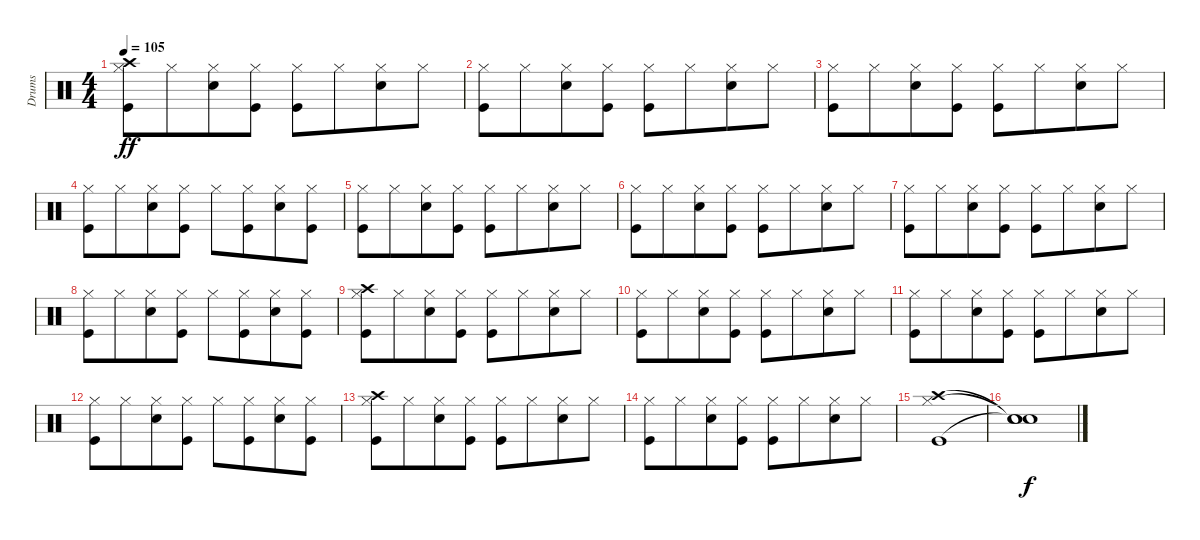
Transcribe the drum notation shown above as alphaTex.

\track ("Drums" "Drums") {instrument percussion}
\staff {score}
\articulation defaults
\ts (4 4)
\tempo 105
\clef neutral
\ks c
("Hi-Hat (closed)" "Crash high (hit)" "Kick (hit)").8{dy ff} "Hi-Hat (closed)".8{beam merge} ("Hi-Hat (closed)" "Snare (hit) 2").8 ("Hi-Hat (closed)" "Kick (hit)").8 ("Hi-Hat (closed)" "Kick (hit)").8 "Hi-Hat (closed)".8{beam merge} ("Hi-Hat (closed)" "Snare (hit) 2").8 "Hi-Hat (closed)".8 |
("Hi-Hat (closed)" "Kick (hit)").8 "Hi-Hat (closed)".8{beam merge} ("Hi-Hat (closed)" "Snare (hit) 2").8 ("Hi-Hat (closed)" "Kick (hit)").8 ("Hi-Hat (closed)" "Kick (hit)").8 "Hi-Hat (closed)".8{beam merge} ("Hi-Hat (closed)" "Snare (hit) 2").8 "Hi-Hat (closed)".8 |
("Hi-Hat (closed)" "Kick (hit)").8 "Hi-Hat (closed)".8{beam merge} ("Hi-Hat (closed)" "Snare (hit) 2").8 ("Hi-Hat (closed)" "Kick (hit)").8 ("Hi-Hat (closed)" "Kick (hit)").8 "Hi-Hat (closed)".8{beam merge} ("Hi-Hat (closed)" "Snare (hit) 2").8 "Hi-Hat (closed)".8 |
("Hi-Hat (closed)" "Kick (hit)").8 "Hi-Hat (closed)".8{beam merge} ("Hi-Hat (closed)" "Snare (hit) 2").8 ("Hi-Hat (closed)" "Kick (hit)").8 "Hi-Hat (closed)".8 ("Hi-Hat (closed)" "Kick (hit)").8{beam merge} ("Hi-Hat (closed)" "Snare (hit) 2").8 ("Hi-Hat (closed)" "Kick (hit)").8 |
("Hi-Hat (closed)" "Kick (hit)").8 "Hi-Hat (closed)".8{beam merge} ("Hi-Hat (closed)" "Snare (hit) 2").8 ("Hi-Hat (closed)" "Kick (hit)").8 ("Hi-Hat (closed)" "Kick (hit)").8 "Hi-Hat (closed)".8{beam merge} ("Hi-Hat (closed)" "Snare (hit) 2").8 "Hi-Hat (closed)".8 |
("Hi-Hat (closed)" "Kick (hit)").8 "Hi-Hat (closed)".8{beam merge} ("Hi-Hat (closed)" "Snare (hit) 2").8 ("Hi-Hat (closed)" "Kick (hit)").8 ("Hi-Hat (closed)" "Kick (hit)").8 "Hi-Hat (closed)".8{beam merge} ("Hi-Hat (closed)" "Snare (hit) 2").8 "Hi-Hat (closed)".8 |
("Hi-Hat (closed)" "Kick (hit)").8 "Hi-Hat (closed)".8{beam merge} ("Hi-Hat (closed)" "Snare (hit) 2").8 ("Hi-Hat (closed)" "Kick (hit)").8 ("Hi-Hat (closed)" "Kick (hit)").8 "Hi-Hat (closed)".8{beam merge} ("Hi-Hat (closed)" "Snare (hit) 2").8 "Hi-Hat (closed)".8 |
("Hi-Hat (closed)" "Kick (hit)").8 "Hi-Hat (closed)".8{beam merge} ("Hi-Hat (closed)" "Snare (hit) 2").8 ("Hi-Hat (closed)" "Kick (hit)").8 "Hi-Hat (closed)".8 ("Hi-Hat (closed)" "Kick (hit)").8{beam merge} ("Hi-Hat (closed)" "Snare (hit) 2").8 ("Hi-Hat (closed)" "Kick (hit)").8 |
("Hi-Hat (closed)" "Crash high (hit)" "Kick (hit)").8 "Hi-Hat (closed)".8{beam merge} ("Hi-Hat (closed)" "Snare (hit) 2").8 ("Hi-Hat (closed)" "Kick (hit)").8 ("Hi-Hat (closed)" "Kick (hit)").8 "Hi-Hat (closed)".8{beam merge} ("Hi-Hat (closed)" "Snare (hit) 2").8 "Hi-Hat (closed)".8 |
("Hi-Hat (closed)" "Kick (hit)").8 "Hi-Hat (closed)".8{beam merge} ("Hi-Hat (closed)" "Snare (hit) 2").8 ("Hi-Hat (closed)" "Kick (hit)").8 ("Hi-Hat (closed)" "Kick (hit)").8 "Hi-Hat (closed)".8{beam merge} ("Hi-Hat (closed)" "Snare (hit) 2").8 "Hi-Hat (closed)".8 |
("Hi-Hat (closed)" "Kick (hit)").8 "Hi-Hat (closed)".8{beam merge} ("Hi-Hat (closed)" "Snare (hit) 2").8 ("Hi-Hat (closed)" "Kick (hit)").8 ("Hi-Hat (closed)" "Kick (hit)").8 "Hi-Hat (closed)".8{beam merge} ("Hi-Hat (closed)" "Snare (hit) 2").8 "Hi-Hat (closed)".8 |
("Hi-Hat (closed)" "Kick (hit)").8 "Hi-Hat (closed)".8{beam merge} ("Hi-Hat (closed)" "Snare (hit) 2").8 ("Hi-Hat (closed)" "Kick (hit)").8 "Hi-Hat (closed)".8 ("Hi-Hat (closed)" "Kick (hit)").8{beam merge} ("Hi-Hat (closed)" "Snare (hit) 2").8 ("Hi-Hat (closed)" "Kick (hit)").8 |
("Hi-Hat (closed)" "Crash high (hit)" "Kick (hit)").8 "Hi-Hat (closed)".8{beam merge} ("Hi-Hat (closed)" "Snare (hit) 2").8 ("Hi-Hat (closed)" "Kick (hit)").8 ("Hi-Hat (closed)" "Kick (hit)").8 "Hi-Hat (closed)".8{beam merge} ("Hi-Hat (closed)" "Snare (hit) 2").8 "Hi-Hat (closed)".8 |
("Hi-Hat (closed)" "Kick (hit)").8 "Hi-Hat (closed)".8{beam merge} ("Hi-Hat (closed)" "Snare (hit) 2").8 ("Hi-Hat (closed)" "Kick (hit)").8 ("Hi-Hat (closed)" "Kick (hit)").8 "Hi-Hat (closed)".8{beam merge} ("Hi-Hat (closed)" "Snare (hit) 2").8 "Hi-Hat (closed)".8 |
("Hi-Hat (closed)" "Crash high (hit)" "Kick (hit)").1 |
("Snare (hit)"{t} "Snare (hit)"{t} "Snare (hit)"{t}).1{dy f}
